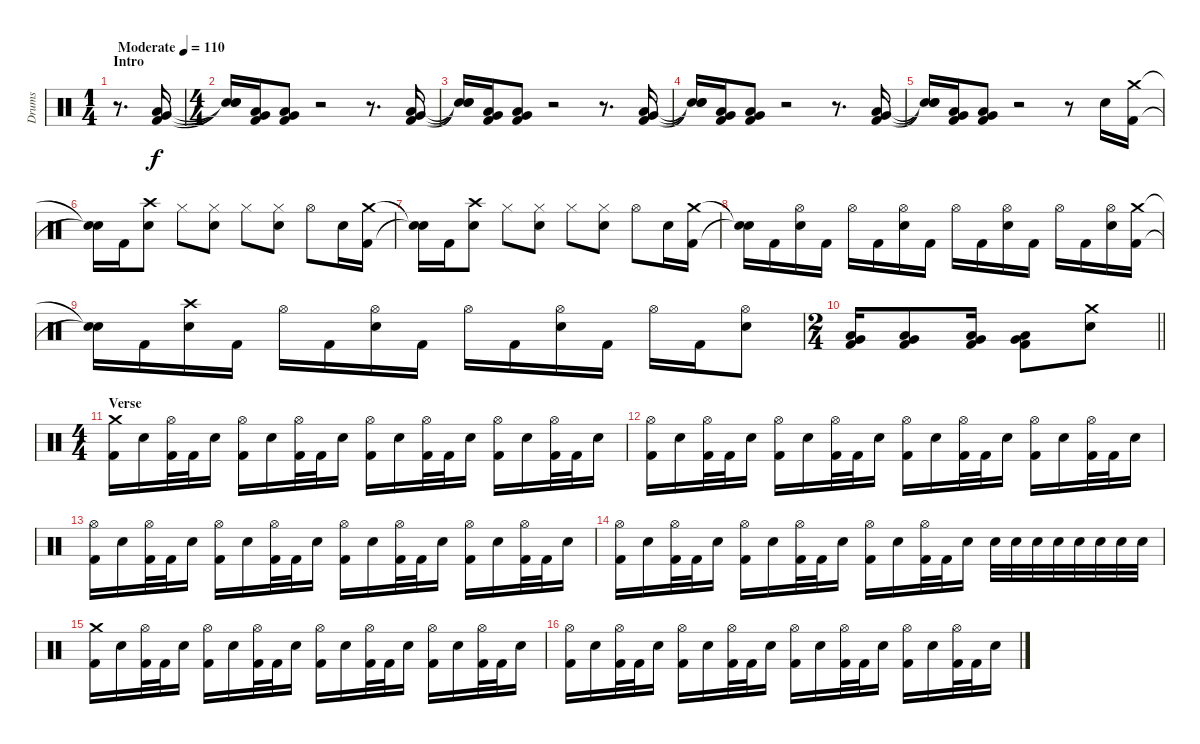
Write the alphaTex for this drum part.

\track ("Drums" "Drums") {instrument percussion}
\staff {score}
\articulation defaults
\ts (1 4)
\section ("" "Intro")
\tempo (110 "Moderate")
\clef neutral
\ks c
r.8{d dy f} ("Very Low Tom (hit)" "Low Floor Tom (hit)" "Kick (hit) 2").16 |
\ts (4 4)
("Snare (hit)"{t} "Snare (hit)"{t} "Snare (hit)"{t}).16 ("Very Low Tom (hit)" "Low Floor Tom (hit)" "Kick (hit) 2").16 ("Very Low Tom (hit)" "Low Floor Tom (hit)" "Kick (hit) 2").8 r.2 r.8{d} ("Very Low Tom (hit)" "Low Floor Tom (hit)" "Kick (hit) 2").16 |
("Snare (hit)"{t} "Snare (hit)"{t} "Snare (hit)"{t}).16 ("Very Low Tom (hit)" "Low Floor Tom (hit)" "Kick (hit) 2").16 ("Very Low Tom (hit)" "Low Floor Tom (hit)" "Kick (hit) 2").8 r.2 r.8{d} ("Very Low Tom (hit)" "Low Floor Tom (hit)" "Kick (hit) 2").16 |
("Snare (hit)"{t} "Snare (hit)"{t} "Snare (hit)"{t}).16 ("Very Low Tom (hit)" "Low Floor Tom (hit)" "Kick (hit) 2").16 ("Very Low Tom (hit)" "Low Floor Tom (hit)" "Kick (hit) 2").8 r.2 r.8{d} ("Very Low Tom (hit)" "Low Floor Tom (hit)" "Kick (hit) 2").16 |
("Snare (hit)"{t} "Snare (hit)"{t} "Snare (hit)"{t}).16 ("Very Low Tom (hit)" "Low Floor Tom (hit)" "Kick (hit) 2").16 ("Very Low Tom (hit)" "Low Floor Tom (hit)" "Kick (hit) 2").8 r.2 r.8 "Electric Snare (hit)".16 ("Crash medium (hit)" "Kick (hit) 2").16 |
("Snare (hit)"{t} "Snare (hit)"{t}).16 "Kick (hit) 2".16 ("Crash high (hit)" "Electric Snare (hit)").8 "Hi-Hat (closed)".8 ("Hi-Hat (closed)" "Electric Snare (hit)").8 "Hi-Hat (closed)".8 ("Hi-Hat (closed)" "Electric Snare (hit)").8 "Hi-Hat (open)".8 "Electric Snare (hit)".16 ("Crash medium (hit)" "Kick (hit) 2").16 |
("Snare (hit)"{t} "Snare (hit)"{t}).16 "Kick (hit) 2".16 ("Crash high (hit)" "Electric Snare (hit)").8 "Hi-Hat (closed)".8 ("Hi-Hat (closed)" "Electric Snare (hit)").8 "Hi-Hat (closed)".8 ("Hi-Hat (closed)" "Electric Snare (hit)").8 "Hi-Hat (open)".8 "Electric Snare (hit)".16 ("Crash medium (hit)" "Kick (hit) 2").16 |
("Snare (hit)"{t} "Snare (hit)"{t}).16 "Kick (hit) 2".16 ("Hi-Hat (open)" "Electric Snare (hit)").16 "Kick (hit) 2".16 "Hi-Hat (open)".16 "Kick (hit) 2".16 ("Hi-Hat (open)" "Electric Snare (hit)").16 "Kick (hit) 2".16 "Hi-Hat (open)".16 "Kick (hit) 2".16 ("Hi-Hat (open)" "Electric Snare (hit)").16 "Kick (hit) 2".16 "Hi-Hat (open)".16 "Kick (hit) 2".16 ("Hi-Hat (open)" "Electric Snare (hit)").16 ("Crash medium (hit)" "Kick (hit) 2").16 |
("Snare (hit)"{t} "Snare (hit)"{t}).16 "Kick (hit) 2".16 ("Crash high (hit)" "Electric Snare (hit)").16 "Kick (hit) 2".16 "Hi-Hat (open)".16 "Kick (hit) 2".16 ("Hi-Hat (open)" "Electric Snare (hit)").16 "Kick (hit) 2".16 "Hi-Hat (open)".16 "Kick (hit) 2".16 ("Hi-Hat (open)" "Electric Snare (hit)").16 "Kick (hit) 2".16 "Hi-Hat (open)".16 "Kick (hit) 2".16 ("Hi-Hat (open)" "Electric Snare (hit)").8 |
\ts (2 4)
\barLineRight lightlight
("Very Low Tom (hit)" "Low Floor Tom (hit)" "Kick (hit) 2").16 ("Very Low Tom (hit)" "Low Floor Tom (hit)" "Kick (hit) 2").8 ("Very Low Tom (hit)" "Low Floor Tom (hit)" "Kick (hit) 2").16 ("Very Low Tom (hit)" "Low Floor Tom (hit)" "Kick (hit) 2").8 ("Crash medium (hit)" "Electric Snare (hit)").8 |
\ts (4 4)
\section ("" "Verse")
("Crash medium (hit)" "Kick (hit) 2").16 "Electric Snare (hit)".16 ("Hi-Hat (open)" "Kick (hit) 2").32 "Kick (hit) 2".32 "Electric Snare (hit)".16 ("Hi-Hat (open)" "Kick (hit) 2").16 "Electric Snare (hit)".16 ("Hi-Hat (open)" "Kick (hit) 2").32 "Kick (hit) 2".32 "Electric Snare (hit)".16 ("Hi-Hat (open)" "Kick (hit) 2").16 "Electric Snare (hit)".16 ("Hi-Hat (open)" "Kick (hit) 2").32 "Kick (hit) 2".32 "Electric Snare (hit)".16 ("Hi-Hat (open)" "Kick (hit) 2").16 "Electric Snare (hit)".16 ("Hi-Hat (open)" "Kick (hit) 2").32 "Kick (hit) 2".32 "Electric Snare (hit)".16 |
("Hi-Hat (open)" "Kick (hit) 2").16 "Electric Snare (hit)".16 ("Hi-Hat (open)" "Kick (hit) 2").32 "Kick (hit) 2".32 "Electric Snare (hit)".16 ("Hi-Hat (open)" "Kick (hit) 2").16 "Electric Snare (hit)".16 ("Hi-Hat (open)" "Kick (hit) 2").32 "Kick (hit) 2".32 "Electric Snare (hit)".16 ("Hi-Hat (open)" "Kick (hit) 2").16 "Electric Snare (hit)".16 ("Hi-Hat (open)" "Kick (hit) 2").32 "Kick (hit) 2".32 "Electric Snare (hit)".16 ("Hi-Hat (open)" "Kick (hit) 2").16 "Electric Snare (hit)".16 ("Hi-Hat (open)" "Kick (hit) 2").32 "Kick (hit) 2".32 "Electric Snare (hit)".16 |
("Hi-Hat (open)" "Kick (hit) 2").16 "Electric Snare (hit)".16 ("Hi-Hat (open)" "Kick (hit) 2").32 "Kick (hit) 2".32 "Electric Snare (hit)".16 ("Hi-Hat (open)" "Kick (hit) 2").16 "Electric Snare (hit)".16 ("Hi-Hat (open)" "Kick (hit) 2").32 "Kick (hit) 2".32 "Electric Snare (hit)".16 ("Hi-Hat (open)" "Kick (hit) 2").16 "Electric Snare (hit)".16 ("Hi-Hat (open)" "Kick (hit) 2").32 "Kick (hit) 2".32 "Electric Snare (hit)".16 ("Hi-Hat (open)" "Kick (hit) 2").16 "Electric Snare (hit)".16 ("Hi-Hat (open)" "Kick (hit) 2").32 "Kick (hit) 2".32 "Electric Snare (hit)".16 |
("Hi-Hat (open)" "Kick (hit) 2").16 "Electric Snare (hit)".16 ("Hi-Hat (open)" "Kick (hit) 2").32 "Kick (hit) 2".32 "Electric Snare (hit)".16 ("Hi-Hat (open)" "Kick (hit) 2").16 "Electric Snare (hit)".16 ("Hi-Hat (open)" "Kick (hit) 2").32 "Kick (hit) 2".32 "Electric Snare (hit)".16 ("Hi-Hat (open)" "Kick (hit) 2").16 "Electric Snare (hit)".16 ("Hi-Hat (open)" "Kick (hit) 2").32 "Kick (hit) 2".32 "Electric Snare (hit)".16 "Electric Snare (hit)".32 "Electric Snare (hit)".32 "Electric Snare (hit)".32 "Electric Snare (hit)".32 "Electric Snare (hit)".32 "Electric Snare (hit)".32 "Electric Snare (hit)".32 "Electric Snare (hit)".32 |
("Crash medium (hit)" "Kick (hit) 2").16 "Electric Snare (hit)".16 ("Hi-Hat (open)" "Kick (hit) 2").32 "Kick (hit) 2".32 "Electric Snare (hit)".16 ("Hi-Hat (open)" "Kick (hit) 2").16 "Electric Snare (hit)".16 ("Hi-Hat (open)" "Kick (hit) 2").32 "Kick (hit) 2".32 "Electric Snare (hit)".16 ("Hi-Hat (open)" "Kick (hit) 2").16 "Electric Snare (hit)".16 ("Hi-Hat (open)" "Kick (hit) 2").32 "Kick (hit) 2".32 "Electric Snare (hit)".16 ("Hi-Hat (open)" "Kick (hit) 2").16 "Electric Snare (hit)".16 ("Hi-Hat (open)" "Kick (hit) 2").32 "Kick (hit) 2".32 "Electric Snare (hit)".16 |
("Hi-Hat (open)" "Kick (hit) 2").16 "Electric Snare (hit)".16 ("Hi-Hat (open)" "Kick (hit) 2").32 "Kick (hit) 2".32 "Electric Snare (hit)".16 ("Hi-Hat (open)" "Kick (hit) 2").16 "Electric Snare (hit)".16 ("Hi-Hat (open)" "Kick (hit) 2").32 "Kick (hit) 2".32 "Electric Snare (hit)".16 ("Hi-Hat (open)" "Kick (hit) 2").16 "Electric Snare (hit)".16 ("Hi-Hat (open)" "Kick (hit) 2").32 "Kick (hit) 2".32 "Electric Snare (hit)".16 ("Hi-Hat (open)" "Kick (hit) 2").16 "Electric Snare (hit)".16 ("Hi-Hat (open)" "Kick (hit) 2").32 "Kick (hit) 2".32 "Electric Snare (hit)".16
